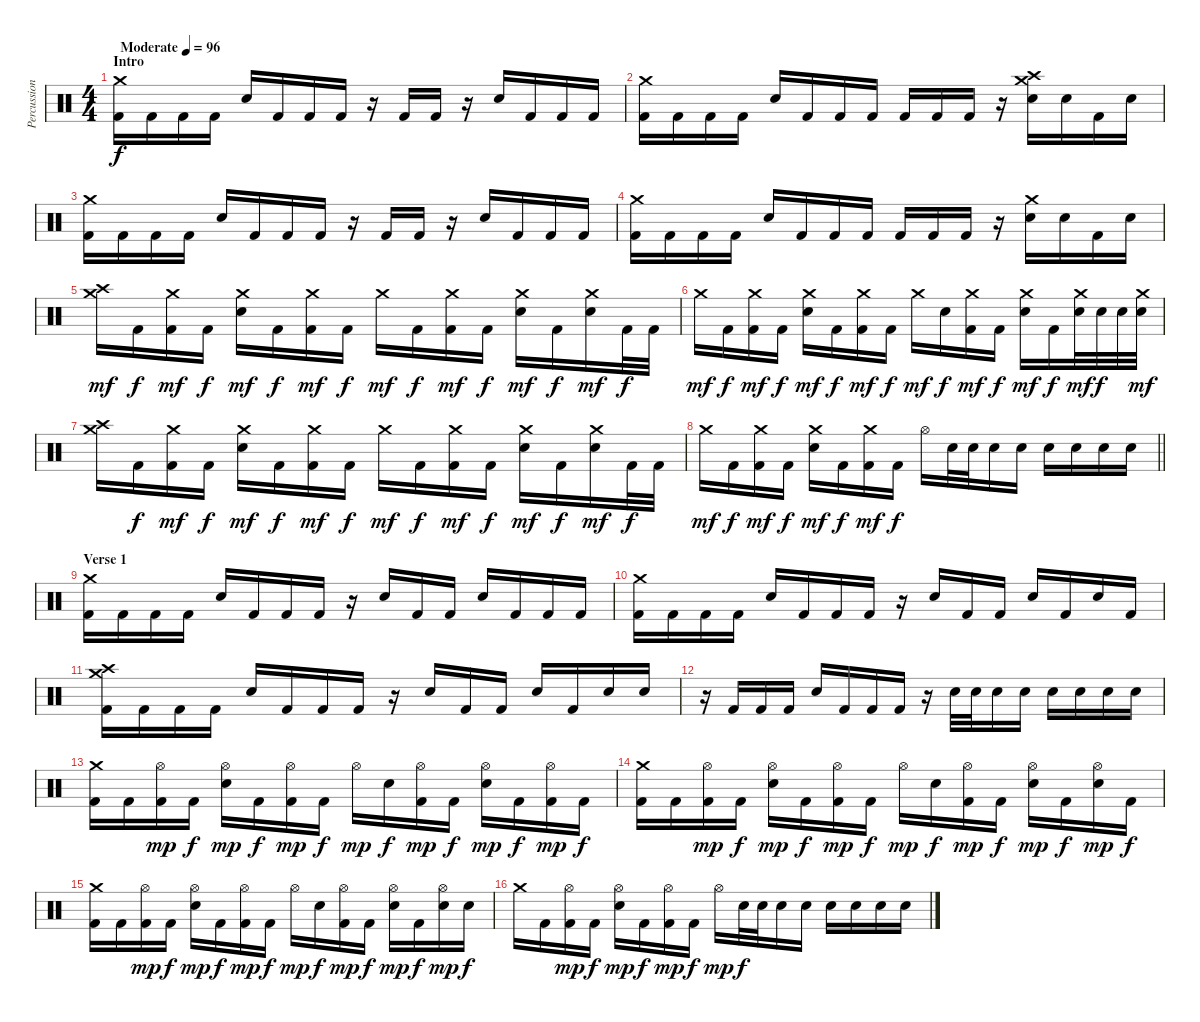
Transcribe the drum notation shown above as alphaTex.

\track ("Percussion" "Percussion") {instrument percussion}
\staff {score}
\articulation defaults
\ts (4 4)
\section ("" "Intro")
\tempo (96 "Moderate")
\clef neutral
\ks c
("Crash medium (hit)" "Kick (hit) 2").16{dy f} "Kick (hit) 2".16 "Kick (hit) 2".16 "Kick (hit) 2".16 "Electric Snare (hit)".16 "Kick (hit) 2".16 "Kick (hit) 2".16 "Kick (hit) 2".16 r.16 "Kick (hit) 2".16 "Kick (hit) 2".16 r.16 "Electric Snare (hit)".16 "Kick (hit) 2".16 "Kick (hit) 2".16 "Kick (hit) 2".16 |
("Crash medium (hit)" "Kick (hit) 2").16 "Kick (hit) 2".16 "Kick (hit) 2".16 "Kick (hit) 2".16 "Electric Snare (hit)".16 "Kick (hit) 2".16 "Kick (hit) 2".16 "Kick (hit) 2".16 "Kick (hit) 2".16 "Kick (hit) 2".16 "Kick (hit) 2".16 r.16 ("Crash medium (hit)" "Crash high (hit)" "Electric Snare (hit)").16 "Electric Snare (hit)".16 "Kick (hit) 2".16 "Electric Snare (hit)".16 |
("Crash medium (hit)" "Kick (hit) 2").16 "Kick (hit) 2".16 "Kick (hit) 2".16 "Kick (hit) 2".16 "Electric Snare (hit)".16 "Kick (hit) 2".16 "Kick (hit) 2".16 "Kick (hit) 2".16 r.16 "Kick (hit) 2".16 "Kick (hit) 2".16 r.16 "Electric Snare (hit)".16 "Kick (hit) 2".16 "Kick (hit) 2".16 "Kick (hit) 2".16 |
("Crash medium (hit)" "Kick (hit) 2").16 "Kick (hit) 2".16 "Kick (hit) 2".16 "Kick (hit) 2".16 "Electric Snare (hit)".16 "Kick (hit) 2".16 "Kick (hit) 2".16 "Kick (hit) 2".16 "Kick (hit) 2".16 "Kick (hit) 2".16 "Kick (hit) 2".16 r.16 ("Crash medium (hit)" "Electric Snare (hit)").16 "Electric Snare (hit)".16 "Kick (hit) 2".16 "Electric Snare (hit)".16 |
("Crash medium (hit)" "Crash high (hit)").16{dy mf} "Kick (hit) 2".16{dy f} ("Crash medium (hit)" "Kick (hit) 2").16{dy mf} "Kick (hit) 2".16{dy f} ("Crash medium (hit)" "Electric Snare (hit)").16{dy mf} "Kick (hit) 2".16{dy f} ("Crash medium (hit)" "Kick (hit) 2").16{dy mf} "Kick (hit) 2".16{dy f} "Crash medium (hit)".16{dy mf} "Kick (hit) 2".16{dy f} ("Crash medium (hit)" "Kick (hit) 2").16{dy mf} "Kick (hit) 2".16{dy f} ("Crash medium (hit)" "Electric Snare (hit)").16{dy mf} "Kick (hit) 2".16{dy f} ("Crash medium (hit)" "Electric Snare (hit)").16{dy mf} "Kick (hit) 2".32{dy f} "Kick (hit) 2".32 |
"Crash medium (hit)".16{dy mf} "Kick (hit) 2".16{dy f} ("Crash medium (hit)" "Kick (hit) 2").16{dy mf} "Kick (hit) 2".16{dy f} ("Crash medium (hit)" "Electric Snare (hit)").16{dy mf} "Kick (hit) 2".16{dy f} ("Crash medium (hit)" "Kick (hit) 2").16{dy mf} "Kick (hit) 2".16{dy f} "Crash medium (hit)".16{dy mf} "Electric Snare (hit)".16{dy f} ("Crash medium (hit)" "Kick (hit) 2").16{dy mf} "Kick (hit) 2".16{dy f} ("Crash medium (hit)" "Electric Snare (hit)").16{dy mf} "Kick (hit) 2".16{dy f} ("Crash medium (hit)" "Electric Snare (hit)").32{dy mf} "Electric Snare (hit)".32{dy f} "Electric Snare (hit)".32 ("Crash medium (hit)" "Electric Snare (hit)").32{dy mf} |
("Crash medium (hit)" "Crash high (hit)").16 "Kick (hit) 2".16{dy f} ("Crash medium (hit)" "Kick (hit) 2").16{dy mf} "Kick (hit) 2".16{dy f} ("Crash medium (hit)" "Electric Snare (hit)").16{dy mf} "Kick (hit) 2".16{dy f} ("Crash medium (hit)" "Kick (hit) 2").16{dy mf} "Kick (hit) 2".16{dy f} "Crash medium (hit)".16{dy mf} "Kick (hit) 2".16{dy f} ("Crash medium (hit)" "Kick (hit) 2").16{dy mf} "Kick (hit) 2".16{dy f} ("Crash medium (hit)" "Electric Snare (hit)").16{dy mf} "Kick (hit) 2".16{dy f} ("Crash medium (hit)" "Electric Snare (hit)").16{dy mf} "Kick (hit) 2".32{dy f} "Kick (hit) 2".32 |
\barLineRight lightlight "Crash medium (hit)".16{dy mf} "Kick (hit) 2".16{dy f}
("Crash medium (hit)" "Kick (hit) 2").16{dy mf} "Kick (hit) 2".16{dy f} ("Crash medium (hit)" "Electric Snare (hit)").16{dy mf} "Kick (hit) 2".16{dy f} ("Crash medium (hit)" "Kick (hit) 2").16{dy mf} "Kick (hit) 2".16{dy f} "Hi-Hat (open)".16 "Electric Snare (hit)".32 "Electric Snare (hit)".32 "Electric Snare (hit)".16 "Electric Snare (hit)".16 "Electric Snare (hit)".16 "Electric Snare (hit)".16 "Electric Snare (hit)".16 "Electric Snare (hit)".16 |
\section ("" "Verse 1 ")
("Crash medium (hit)" "Kick (hit) 2").16 "Kick (hit) 2".16 "Kick (hit) 2".16 "Kick (hit) 2".16 "Electric Snare (hit)".16 "Kick (hit) 2".16 "Kick (hit) 2".16 "Kick (hit) 2".16 r.16 "Electric Snare (hit)".16 "Kick (hit) 2".16 "Kick (hit) 2".16 "Electric Snare (hit)".16 "Kick (hit) 2".16 "Kick (hit) 2".16 "Kick (hit) 2".16 |
("Crash medium (hit)" "Kick (hit) 2").16 "Kick (hit) 2".16 "Kick (hit) 2".16 "Kick (hit) 2".16 "Electric Snare (hit)".16 "Kick (hit) 2".16 "Kick (hit) 2".16 "Kick (hit) 2".16 r.16 "Electric Snare (hit)".16 "Kick (hit) 2".16 "Kick (hit) 2".16 "Electric Snare (hit)".16 "Kick (hit) 2".16 "Electric Snare (hit)".16 "Kick (hit) 2".16 |
("Crash high (hit)" "Crash medium (hit)" "Kick (hit) 2").16 "Kick (hit) 2".16 "Kick (hit) 2".16 "Kick (hit) 2".16 "Electric Snare (hit)".16 "Kick (hit) 2".16 "Kick (hit) 2".16 "Kick (hit) 2".16 r.16 "Electric Snare (hit)".16 "Kick (hit) 2".16 "Kick (hit) 2".16 "Electric Snare (hit)".16 "Kick (hit) 2".16 "Electric Snare (hit)".16 "Electric Snare (hit)".16 |
r.16 "Kick (hit) 2".16 "Kick (hit) 2".16 "Kick (hit) 2".16 "Electric Snare (hit)".16 "Kick (hit) 2".16 "Kick (hit) 2".16 "Kick (hit) 2".16 r.16 "Electric Snare (hit)".32 "Electric Snare (hit)".32 "Electric Snare (hit)".16 "Electric Snare (hit)".16 "Electric Snare (hit)".16 "Electric Snare (hit)".16 "Electric Snare (hit)".16 "Electric Snare (hit)".16 |
("Crash medium (hit)" "Kick (hit) 2").16 "Kick (hit) 2".16 ("Hi-Hat (open)" "Kick (hit) 2").16{dy mp} "Kick (hit) 2".16{dy f} ("Hi-Hat (open)" "Electric Snare (hit)").16{dy mp} "Kick (hit) 2".16{dy f} ("Hi-Hat (open)" "Kick (hit) 2").16{dy mp} "Kick (hit) 2".16{dy f} "Hi-Hat (open)".16{dy mp} "Electric Snare (hit)".16{dy f} ("Hi-Hat (open)" "Kick (hit) 2").16{dy mp} "Kick (hit) 2".16{dy f} ("Hi-Hat (open)" "Electric Snare (hit)").16{dy mp} "Kick (hit) 2".16{dy f} ("Hi-Hat (open)" "Kick (hit) 2").16{dy mp} "Kick (hit) 2".16{dy f} |
("Crash medium (hit)" "Kick (hit) 2").16 "Kick (hit) 2".16 ("Hi-Hat (open)" "Kick (hit) 2").16{dy mp} "Kick (hit) 2".16{dy f} ("Hi-Hat (open)" "Electric Snare (hit)").16{dy mp} "Kick (hit) 2".16{dy f} ("Hi-Hat (open)" "Kick (hit) 2").16{dy mp} "Kick (hit) 2".16{dy f} "Hi-Hat (open)".16{dy mp} "Electric Snare (hit)".16{dy f} ("Hi-Hat (open)" "Kick (hit) 2").16{dy mp} "Kick (hit) 2".16{dy f} ("Hi-Hat (open)" "Electric Snare (hit)").16{dy mp} "Kick (hit) 2".16{dy f} ("Hi-Hat (open)" "Electric Snare (hit)").16{dy mp} "Kick (hit) 2".16{dy f} |
("Crash medium (hit)" "Kick (hit) 2").16 "Kick (hit) 2".16 ("Hi-Hat (open)" "Kick (hit) 2").16{dy mp} "Kick (hit) 2".16{dy f} ("Hi-Hat (open)" "Electric Snare (hit)").16{dy mp} "Kick (hit) 2".16{dy f} ("Hi-Hat (open)" "Kick (hit) 2").16{dy mp} "Kick (hit) 2".16{dy f} "Hi-Hat (open)".16{dy mp} "Electric Snare (hit)".16{dy f} ("Hi-Hat (open)" "Kick (hit) 2").16{dy mp} "Kick (hit) 2".16{dy f} ("Hi-Hat (open)" "Electric Snare (hit)").16{dy mp} "Kick (hit) 2".16{dy f} ("Hi-Hat (open)" "Electric Snare (hit)").16{dy mp} "Electric Snare (hit)".16{dy f} |
"Crash medium (hit)".16 "Kick (hit) 2".16 ("Hi-Hat (open)" "Kick (hit) 2").16{dy mp} "Kick (hit) 2".16{dy f} ("Hi-Hat (open)" "Electric Snare (hit)").16{dy mp} "Kick (hit) 2".16{dy f} ("Hi-Hat (open)" "Kick (hit) 2").16{dy mp} "Kick (hit) 2".16{dy f} "Hi-Hat (open)".16{dy mp} "Electric Snare (hit)".32{dy f} "Electric Snare (hit)".32 "Electric Snare (hit)".16 "Electric Snare (hit)".16 "Electric Snare (hit)".16 "Electric Snare (hit)".16 "Electric Snare (hit)".16 "Electric Snare (hit)".16
